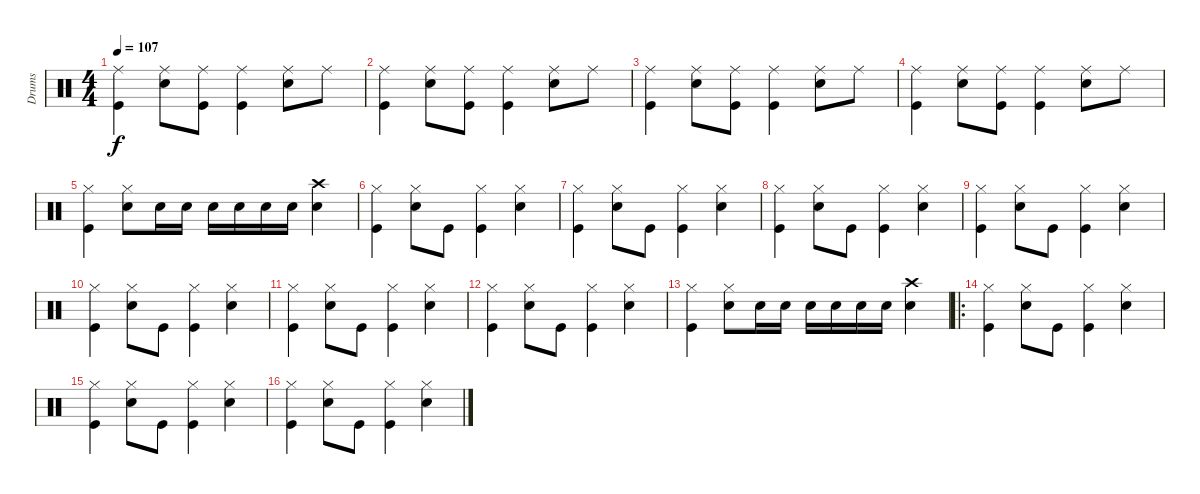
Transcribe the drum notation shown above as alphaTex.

\track ("Drums" "Drums") {instrument percussion}
\staff {score}
\articulation defaults
\ts (4 4)
\tempo 107
\clef neutral
\ks c
("Kick (hit)" "Ride (middle)").4{dy f} ("Snare (hit) 2" "Ride (middle)").8 ("Kick (hit)" "Ride (middle)").8 ("Kick (hit)" "Ride (middle)").4 ("Snare (hit) 2" "Ride (middle)").8 "Ride (middle)".8 |
("Kick (hit)" "Ride (middle)").4 ("Snare (hit) 2" "Ride (middle)").8 ("Kick (hit)" "Ride (middle)").8 ("Kick (hit)" "Ride (middle)").4 ("Snare (hit) 2" "Ride (middle)").8 "Ride (middle)".8 |
("Kick (hit)" "Ride (middle)").4 ("Snare (hit) 2" "Ride (middle)").8 ("Kick (hit)" "Ride (middle)").8 ("Kick (hit)" "Ride (middle)").4 ("Snare (hit) 2" "Ride (middle)").8 "Ride (middle)".8 |
("Kick (hit)" "Ride (middle)").4 ("Snare (hit) 2" "Ride (middle)").8 ("Kick (hit)" "Ride (middle)").8 ("Kick (hit)" "Ride (middle)").4 ("Snare (hit) 2" "Ride (middle)").8 "Ride (middle)".8 |
("Kick (hit)" "Hi-Hat (closed)").4 ("Snare (hit) 2" "Hi-Hat (closed)").8 "Snare (hit) 2".16 "Snare (hit) 2".16 "Snare (hit) 2".16 "Snare (hit) 2".16 "Snare (hit) 2".16 "Snare (hit) 2".16 ("Crash high (hit)" "Snare (hit) 2").4 |
("Kick (hit)" "Hi-Hat (closed)").4 ("Snare (hit) 2" "Hi-Hat (closed)").8 "Kick (hit)".8 ("Kick (hit)" "Hi-Hat (closed)").4 ("Snare (hit) 2" "Hi-Hat (closed)").4 |
("Kick (hit)" "Hi-Hat (closed)").4 ("Snare (hit) 2" "Hi-Hat (closed)").8 "Kick (hit)".8 ("Kick (hit)" "Hi-Hat (closed)").4 ("Snare (hit) 2" "Hi-Hat (closed)").4 |
("Kick (hit)" "Hi-Hat (closed)").4 ("Snare (hit) 2" "Hi-Hat (closed)").8 "Kick (hit)".8 ("Kick (hit)" "Hi-Hat (closed)").4 ("Snare (hit) 2" "Hi-Hat (closed)").4 |
("Kick (hit)" "Hi-Hat (closed)").4 ("Snare (hit) 2" "Hi-Hat (closed)").8 "Kick (hit)".8 ("Kick (hit)" "Hi-Hat (closed)").4 ("Snare (hit) 2" "Hi-Hat (closed)").4 |
("Kick (hit)" "Hi-Hat (closed)").4 ("Snare (hit) 2" "Hi-Hat (closed)").8 "Kick (hit)".8 ("Kick (hit)" "Hi-Hat (closed)").4 ("Snare (hit) 2" "Hi-Hat (closed)").4 |
("Kick (hit)" "Hi-Hat (closed)").4 ("Snare (hit) 2" "Hi-Hat (closed)").8 "Kick (hit)".8 ("Kick (hit)" "Hi-Hat (closed)").4 ("Snare (hit) 2" "Hi-Hat (closed)").4 |
("Kick (hit)" "Hi-Hat (closed)").4 ("Snare (hit) 2" "Hi-Hat (closed)").8 "Kick (hit)".8 ("Kick (hit)" "Hi-Hat (closed)").4 ("Snare (hit) 2" "Hi-Hat (closed)").4 |
("Kick (hit)" "Hi-Hat (closed)").4 ("Snare (hit) 2" "Hi-Hat (closed)").8 "Snare (hit) 2".16 "Snare (hit) 2".16 "Snare (hit) 2".16 "Snare (hit) 2".16 "Snare (hit) 2".16 "Snare (hit) 2".16 ("Crash high (hit)" "Snare (hit) 2").4 |
\ro
("Kick (hit)" "Hi-Hat (closed)").4 ("Snare (hit) 2" "Hi-Hat (closed)").8 "Kick (hit)".8 ("Kick (hit)" "Hi-Hat (closed)").4 ("Snare (hit) 2" "Hi-Hat (closed)").4 |
("Kick (hit)" "Hi-Hat (closed)").4 ("Snare (hit) 2" "Hi-Hat (closed)").8 "Kick (hit)".8 ("Kick (hit)" "Hi-Hat (closed)").4 ("Snare (hit) 2" "Hi-Hat (closed)").4 |
("Kick (hit)" "Hi-Hat (closed)").4 ("Snare (hit) 2" "Hi-Hat (closed)").8 "Kick (hit)".8 ("Kick (hit)" "Hi-Hat (closed)").4 ("Snare (hit) 2" "Hi-Hat (closed)").4
